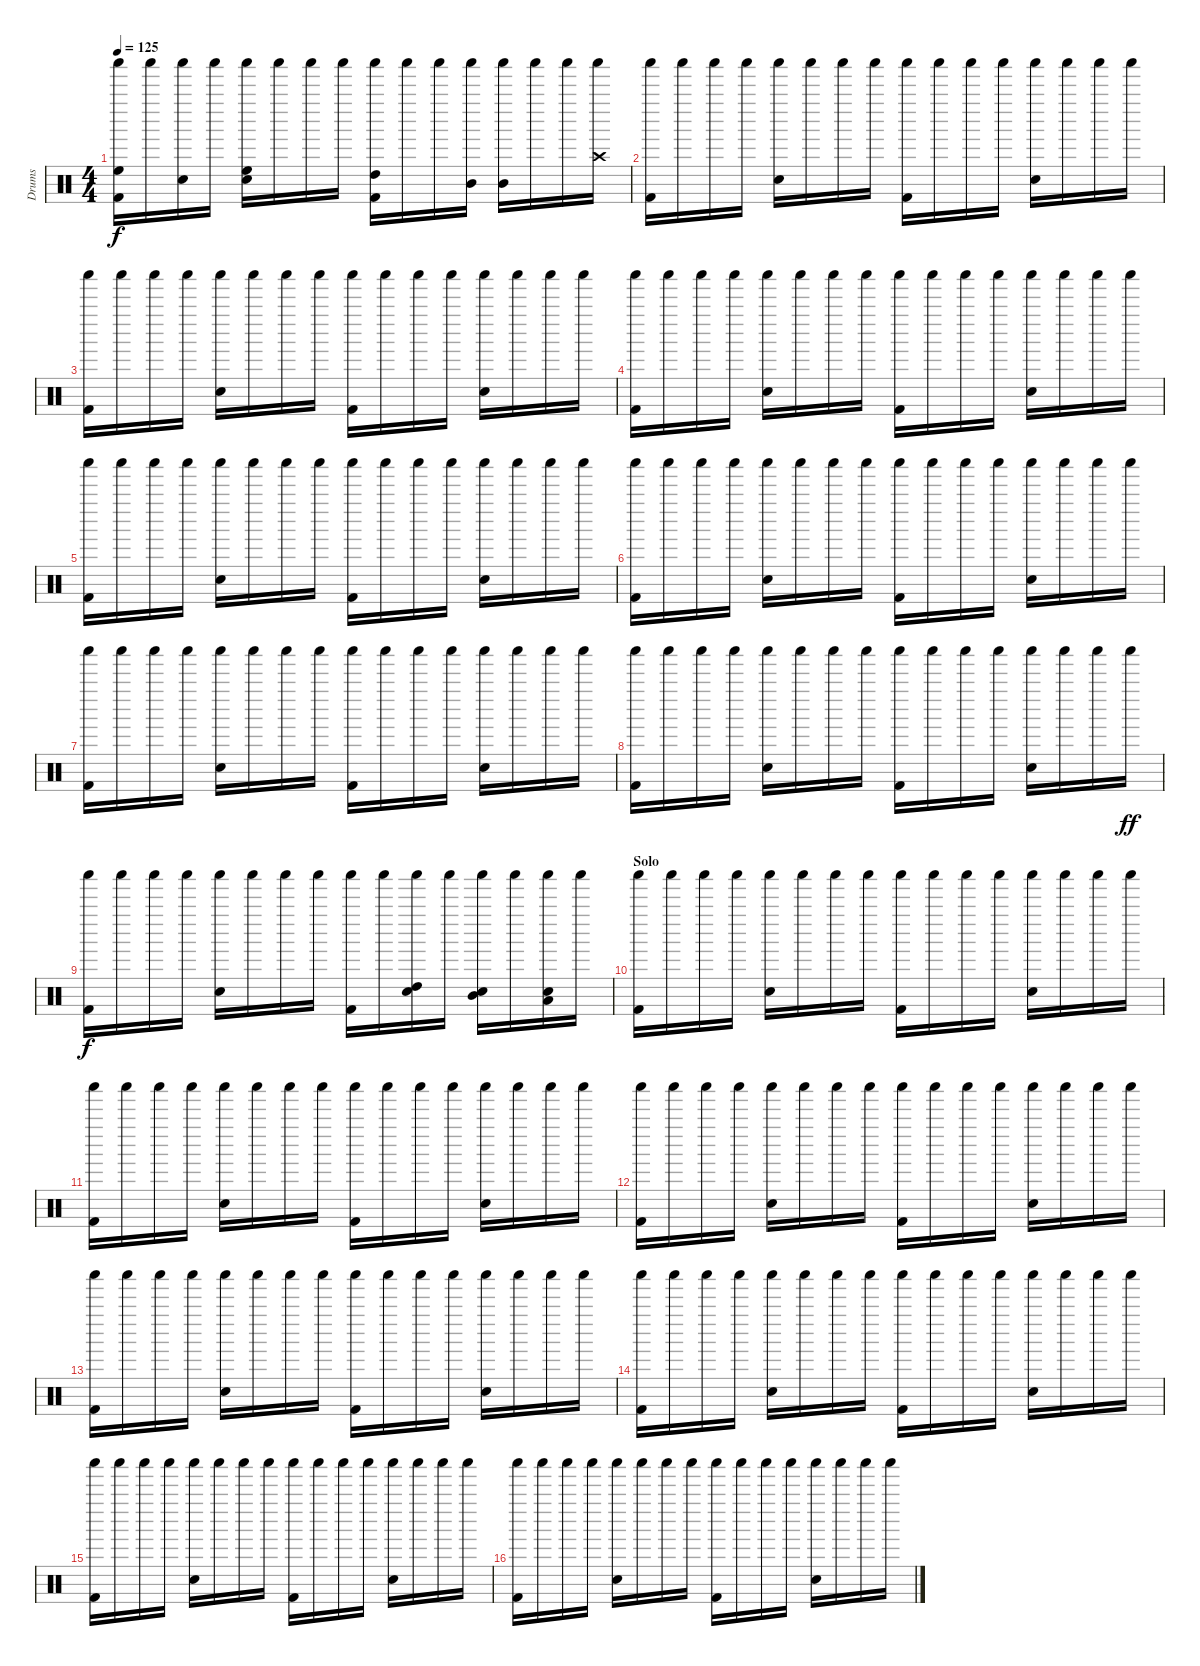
\track ("Drums" "Drums") {instrument percussion}
\staff {score}
\articulation defaults
\ts (4 4)
\tempo 125
\clef neutral
\ks c
("Shaker (hit)" "High Floor Tom (hit)" "Kick (hit) 2").16{dy f} "Shaker (hit)".16 ("Shaker (hit)" "Electric Snare (hit)").16 "Shaker (hit)".16 ("Shaker (hit)" "High Floor Tom (hit)" "Snare (hit) 2").16 "Shaker (hit)".16 "Shaker (hit)".16 "Shaker (hit)".16 ("Shaker (hit)" "High Tom (hit)" "Kick (hit) 2").16 "Shaker (hit)".16 "Shaker (hit)".16 ("Shaker (hit)" "Mid Tom (hit)").16 ("Shaker (hit)" "Mid Tom (hit)").16 "Shaker (hit)".16 "Shaker (hit)".16 ("Shaker (hit)" "Crash high (hit)").16 |
("Shaker (hit)" "Kick (hit) 2").16 "Shaker (hit)".16 "Shaker (hit)".16 "Shaker (hit)".16 ("Shaker (hit)" "Snare (hit) 2").16 "Shaker (hit)".16 "Shaker (hit)".16 "Shaker (hit)".16 ("Shaker (hit)" "Kick (hit) 2").16 "Shaker (hit)".16 "Shaker (hit)".16 "Shaker (hit)".16 ("Shaker (hit)" "Snare (hit) 2").16 "Shaker (hit)".16 "Shaker (hit)".16 "Shaker (hit)".16 |
("Shaker (hit)" "Kick (hit) 2").16 "Shaker (hit)".16 "Shaker (hit)".16 "Shaker (hit)".16 ("Shaker (hit)" "Snare (hit) 2").16 "Shaker (hit)".16 "Shaker (hit)".16 "Shaker (hit)".16 ("Shaker (hit)" "Kick (hit) 2").16 "Shaker (hit)".16 "Shaker (hit)".16 "Shaker (hit)".16 ("Shaker (hit)" "Snare (hit) 2").16 "Shaker (hit)".16 "Shaker (hit)".16 "Shaker (hit)".16 |
("Shaker (hit)" "Kick (hit) 2").16 "Shaker (hit)".16 "Shaker (hit)".16 "Shaker (hit)".16 ("Shaker (hit)" "Snare (hit) 2").16 "Shaker (hit)".16 "Shaker (hit)".16 "Shaker (hit)".16 ("Shaker (hit)" "Kick (hit) 2").16 "Shaker (hit)".16 "Shaker (hit)".16 "Shaker (hit)".16 ("Shaker (hit)" "Snare (hit) 2").16 "Shaker (hit)".16 "Shaker (hit)".16 "Shaker (hit)".16 |
("Shaker (hit)" "Kick (hit) 2").16 "Shaker (hit)".16 "Shaker (hit)".16 "Shaker (hit)".16 ("Shaker (hit)" "Snare (hit) 2").16 "Shaker (hit)".16 "Shaker (hit)".16 "Shaker (hit)".16 ("Shaker (hit)" "Kick (hit) 2").16 "Shaker (hit)".16 "Shaker (hit)".16 "Shaker (hit)".16 ("Shaker (hit)" "Snare (hit) 2").16 "Shaker (hit)".16 "Shaker (hit)".16 "Shaker (hit)".16 |
("Shaker (hit)" "Kick (hit) 2").16 "Shaker (hit)".16 "Shaker (hit)".16 "Shaker (hit)".16 ("Shaker (hit)" "Snare (hit) 2").16 "Shaker (hit)".16 "Shaker (hit)".16 "Shaker (hit)".16 ("Shaker (hit)" "Kick (hit) 2").16 "Shaker (hit)".16 "Shaker (hit)".16 "Shaker (hit)".16 ("Shaker (hit)" "Snare (hit) 2").16 "Shaker (hit)".16 "Shaker (hit)".16 "Shaker (hit)".16 |
("Shaker (hit)" "Kick (hit) 2").16 "Shaker (hit)".16 "Shaker (hit)".16 "Shaker (hit)".16 ("Shaker (hit)" "Snare (hit) 2").16 "Shaker (hit)".16 "Shaker (hit)".16 "Shaker (hit)".16 ("Shaker (hit)" "Kick (hit) 2").16 "Shaker (hit)".16 "Shaker (hit)".16 "Shaker (hit)".16 ("Shaker (hit)" "Snare (hit) 2").16 "Shaker (hit)".16 "Shaker (hit)".16 "Shaker (hit)".16 |
("Shaker (hit)" "Kick (hit) 2").16 "Shaker (hit)".16 "Shaker (hit)".16 "Shaker (hit)".16 ("Shaker (hit)" "Snare (hit) 2").16 "Shaker (hit)".16 "Shaker (hit)".16 "Shaker (hit)".16 ("Shaker (hit)" "Kick (hit) 2").16 "Shaker (hit)".16 "Shaker (hit)".16 "Shaker (hit)".16 ("Shaker (hit)" "Snare (hit) 2").16 "Shaker (hit)".16 "Shaker (hit)".16 "Shaker (hit)".16{dy ff} |
("Shaker (hit)" "Kick (hit) 2").16{dy f} "Shaker (hit)".16 "Shaker (hit)".16 "Shaker (hit)".16 ("Shaker (hit)" "Snare (hit) 2").16 "Shaker (hit)".16 "Shaker (hit)".16 "Shaker (hit)".16 ("Shaker (hit)" "Kick (hit) 2").16 "Shaker (hit)".16 ("Shaker (hit)" "High Tom (hit)" "Snare (hit) 2").16 "Shaker (hit)".16 ("Shaker (hit)" "Mid Tom (hit)" "Snare (hit) 2").16 "Shaker (hit)".16 ("Shaker (hit)" "Low Tom (hit)" "Snare (hit) 2").16 "Shaker (hit)".16 |
\section ("" "Solo")
("Shaker (hit)" "Kick (hit) 2").16 "Shaker (hit)".16 "Shaker (hit)".16 "Shaker (hit)".16 ("Shaker (hit)" "Electric Snare (hit)").16 "Shaker (hit)".16 "Shaker (hit)".16 "Shaker (hit)".16 ("Shaker (hit)" "Kick (hit) 2").16 "Shaker (hit)".16 "Shaker (hit)".16 "Shaker (hit)".16 ("Shaker (hit)" "Electric Snare (hit)").16 "Shaker (hit)".16 "Shaker (hit)".16 "Shaker (hit)".16 |
("Shaker (hit)" "Kick (hit) 2").16 "Shaker (hit)".16 "Shaker (hit)".16 "Shaker (hit)".16 ("Shaker (hit)" "Electric Snare (hit)").16 "Shaker (hit)".16 "Shaker (hit)".16 "Shaker (hit)".16 ("Shaker (hit)" "Kick (hit) 2").16 "Shaker (hit)".16 "Shaker (hit)".16 "Shaker (hit)".16 ("Shaker (hit)" "Electric Snare (hit)").16 "Shaker (hit)".16 "Shaker (hit)".16 "Shaker (hit)".16 |
("Shaker (hit)" "Kick (hit) 2").16 "Shaker (hit)".16 "Shaker (hit)".16 "Shaker (hit)".16 ("Shaker (hit)" "Electric Snare (hit)").16 "Shaker (hit)".16 "Shaker (hit)".16 "Shaker (hit)".16 ("Shaker (hit)" "Kick (hit) 2").16 "Shaker (hit)".16 "Shaker (hit)".16 "Shaker (hit)".16 ("Shaker (hit)" "Electric Snare (hit)").16 "Shaker (hit)".16 "Shaker (hit)".16 "Shaker (hit)".16 |
("Shaker (hit)" "Kick (hit) 2").16 "Shaker (hit)".16 "Shaker (hit)".16 "Shaker (hit)".16 ("Shaker (hit)" "Electric Snare (hit)").16 "Shaker (hit)".16 "Shaker (hit)".16 "Shaker (hit)".16 ("Shaker (hit)" "Kick (hit) 2").16 "Shaker (hit)".16 "Shaker (hit)".16 "Shaker (hit)".16 ("Shaker (hit)" "Electric Snare (hit)").16 "Shaker (hit)".16 "Shaker (hit)".16 "Shaker (hit)".16 |
("Shaker (hit)" "Kick (hit) 2").16 "Shaker (hit)".16 "Shaker (hit)".16 "Shaker (hit)".16 ("Shaker (hit)" "Electric Snare (hit)").16 "Shaker (hit)".16 "Shaker (hit)".16 "Shaker (hit)".16 ("Shaker (hit)" "Kick (hit) 2").16 "Shaker (hit)".16 "Shaker (hit)".16 "Shaker (hit)".16 ("Shaker (hit)" "Electric Snare (hit)").16 "Shaker (hit)".16 "Shaker (hit)".16 "Shaker (hit)".16 |
("Shaker (hit)" "Kick (hit) 2").16 "Shaker (hit)".16 "Shaker (hit)".16 "Shaker (hit)".16 ("Shaker (hit)" "Electric Snare (hit)").16 "Shaker (hit)".16 "Shaker (hit)".16 "Shaker (hit)".16 ("Shaker (hit)" "Kick (hit) 2").16 "Shaker (hit)".16 "Shaker (hit)".16 "Shaker (hit)".16 ("Shaker (hit)" "Electric Snare (hit)").16 "Shaker (hit)".16 "Shaker (hit)".16 "Shaker (hit)".16 |
("Shaker (hit)" "Kick (hit) 2").16 "Shaker (hit)".16 "Shaker (hit)".16 "Shaker (hit)".16 ("Shaker (hit)" "Electric Snare (hit)").16 "Shaker (hit)".16 "Shaker (hit)".16 "Shaker (hit)".16 ("Shaker (hit)" "Kick (hit) 2").16 "Shaker (hit)".16 "Shaker (hit)".16 "Shaker (hit)".16 ("Shaker (hit)" "Electric Snare (hit)").16 "Shaker (hit)".16 "Shaker (hit)".16 "Shaker (hit)".16
